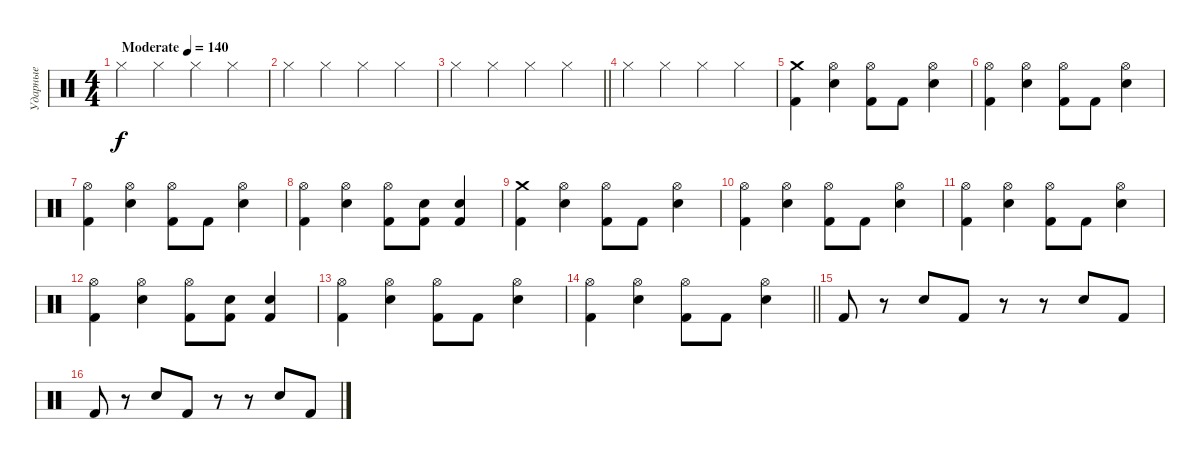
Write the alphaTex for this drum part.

\track ("Ударные" "Ударные") {instrument percussion}
\staff {score}
\articulation defaults
\ts (4 4)
\tempo (140 "Moderate")
\clef neutral
\ks c "Hi-Hat (closed)".4{dy f} "Hi-Hat (closed)".4 "Hi-Hat (closed)".4 "Hi-Hat (closed)".4
|
"Hi-Hat (closed)".4 "Hi-Hat (closed)".4 "Hi-Hat (closed)".4 "Hi-Hat (closed)".4 |
\barLineRight lightlight "Hi-Hat (closed)".4 "Hi-Hat (closed)".4 "Hi-Hat (closed)".4 "Hi-Hat (closed)".4
|
"Hi-Hat (closed)".4 "Hi-Hat (closed)".4 "Hi-Hat (closed)".4 "Hi-Hat (closed)".4 |
("Crash medium (hit)" "Kick (hit) 2").4 ("Hi-Hat (open)" "Electric Snare (hit)").4 ("Hi-Hat (open)" "Kick (hit) 2").8 "Kick (hit) 2".8 ("Hi-Hat (open)" "Electric Snare (hit)").4 |
("Hi-Hat (open)" "Kick (hit) 2").4 ("Hi-Hat (open)" "Electric Snare (hit)").4 ("Hi-Hat (open)" "Kick (hit) 2").8 "Kick (hit) 2".8 ("Hi-Hat (open)" "Electric Snare (hit)").4 |
("Hi-Hat (open)" "Kick (hit) 2").4 ("Hi-Hat (open)" "Electric Snare (hit)").4 ("Hi-Hat (open)" "Kick (hit) 2").8 "Kick (hit) 2".8 ("Hi-Hat (open)" "Electric Snare (hit)").4 |
("Hi-Hat (open)" "Kick (hit) 2").4 ("Hi-Hat (open)" "Electric Snare (hit)").4 ("Hi-Hat (open)" "Kick (hit) 2").8 ("Electric Snare (hit)" "Kick (hit) 2").8 ("Kick (hit) 2" "Electric Snare (hit)").4 |
("Crash medium (hit)" "Kick (hit) 2").4 ("Hi-Hat (open)" "Electric Snare (hit)").4 ("Hi-Hat (open)" "Kick (hit) 2").8 "Kick (hit) 2".8 ("Hi-Hat (open)" "Electric Snare (hit)").4 |
("Hi-Hat (open)" "Kick (hit) 2").4 ("Hi-Hat (open)" "Electric Snare (hit)").4 ("Hi-Hat (open)" "Kick (hit) 2").8 "Kick (hit) 2".8 ("Hi-Hat (open)" "Electric Snare (hit)").4 |
("Hi-Hat (open)" "Kick (hit) 2").4 ("Hi-Hat (open)" "Electric Snare (hit)").4 ("Hi-Hat (open)" "Kick (hit) 2").8 "Kick (hit) 2".8 ("Hi-Hat (open)" "Electric Snare (hit)").4 |
("Hi-Hat (open)" "Kick (hit) 2").4 ("Hi-Hat (open)" "Electric Snare (hit)").4 ("Hi-Hat (open)" "Kick (hit) 2").8 ("Electric Snare (hit)" "Kick (hit) 2").8 ("Kick (hit) 2" "Electric Snare (hit)").4 |
("Hi-Hat (open)" "Kick (hit) 2").4 ("Hi-Hat (open)" "Electric Snare (hit)").4 ("Hi-Hat (open)" "Kick (hit) 2").8 "Kick (hit) 2".8 ("Hi-Hat (open)" "Electric Snare (hit)").4 |
\barLineRight lightlight
("Hi-Hat (open)" "Kick (hit) 2").4 ("Hi-Hat (open)" "Electric Snare (hit)").4 ("Hi-Hat (open)" "Kick (hit) 2").8 "Kick (hit) 2".8 ("Hi-Hat (open)" "Electric Snare (hit)").4 |
"Kick (hit) 2".8 r.8 "Electric Snare (hit)".8 "Kick (hit) 2".8 r.8 r.8 "Electric Snare (hit)".8 "Kick (hit) 2".8 |
"Kick (hit) 2".8 r.8 "Electric Snare (hit)".8 "Kick (hit) 2".8 r.8 r.8 "Electric Snare (hit)".8 "Kick (hit) 2".8
